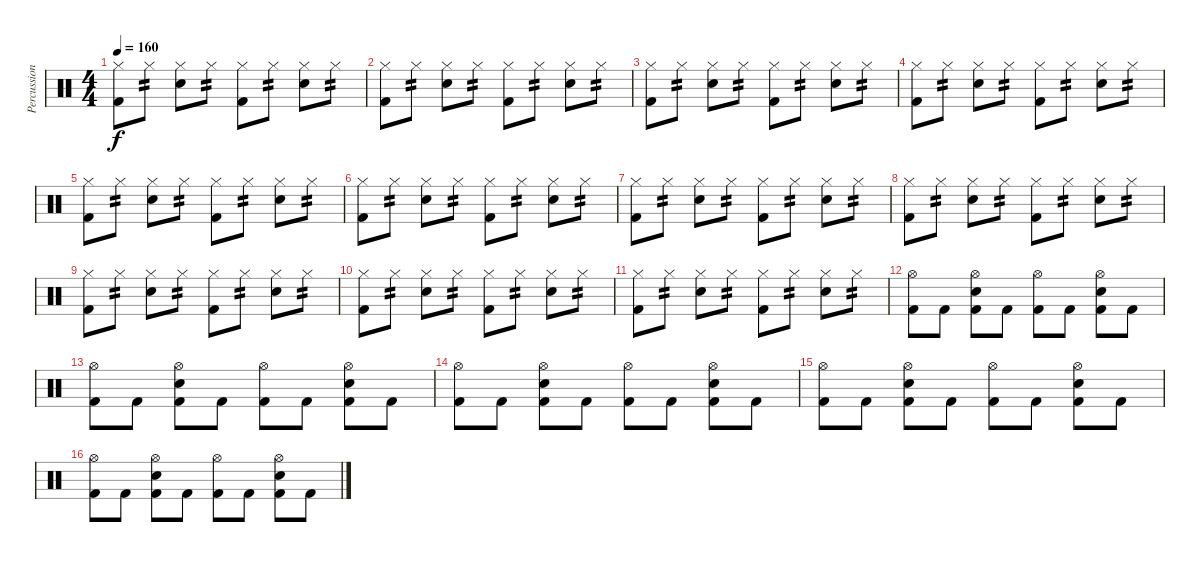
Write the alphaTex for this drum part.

\track ("Percussion" "Percussion") {instrument percussion}
\staff {score}
\articulation defaults
\ts (4 4)
\tempo 160
\clef neutral
\ks c
("Hi-Hat (closed)" "Kick (hit) 2").8{dy f} "Hi-Hat (closed)".8{tp 2} ("Hi-Hat (closed)" "Snare (hit) 2").8 "Hi-Hat (closed)".8{tp 2} ("Hi-Hat (closed)" "Kick (hit) 2").8 "Hi-Hat (closed)".8{tp 2} ("Hi-Hat (closed)" "Snare (hit) 2").8 "Hi-Hat (closed)".8{tp 2} |
("Hi-Hat (closed)" "Kick (hit) 2").8 "Hi-Hat (closed)".8{tp 2} ("Hi-Hat (closed)" "Snare (hit) 2").8 "Hi-Hat (closed)".8{tp 2} ("Hi-Hat (closed)" "Kick (hit) 2").8 "Hi-Hat (closed)".8{tp 2} ("Hi-Hat (closed)" "Snare (hit) 2").8 "Hi-Hat (closed)".8{tp 2} |
("Hi-Hat (closed)" "Kick (hit) 2").8 "Hi-Hat (closed)".8{tp 2} ("Hi-Hat (closed)" "Snare (hit) 2").8 "Hi-Hat (closed)".8{tp 2} ("Hi-Hat (closed)" "Kick (hit) 2").8 "Hi-Hat (closed)".8{tp 2} ("Hi-Hat (closed)" "Snare (hit) 2").8 "Hi-Hat (closed)".8{tp 2} |
("Hi-Hat (closed)" "Kick (hit) 2").8 "Hi-Hat (closed)".8{tp 2} ("Hi-Hat (closed)" "Snare (hit) 2").8 "Hi-Hat (closed)".8{tp 2} ("Hi-Hat (closed)" "Kick (hit) 2").8 "Hi-Hat (closed)".8{tp 2} ("Hi-Hat (closed)" "Snare (hit) 2").8 "Hi-Hat (closed)".8{tp 2} |
("Hi-Hat (closed)" "Kick (hit) 2").8 "Hi-Hat (closed)".8{tp 2} ("Hi-Hat (closed)" "Snare (hit) 2").8 "Hi-Hat (closed)".8{tp 2} ("Hi-Hat (closed)" "Kick (hit) 2").8 "Hi-Hat (closed)".8{tp 2} ("Hi-Hat (closed)" "Snare (hit) 2").8 "Hi-Hat (closed)".8{tp 2} |
("Hi-Hat (closed)" "Kick (hit) 2").8 "Hi-Hat (closed)".8{tp 2} ("Hi-Hat (closed)" "Snare (hit) 2").8 "Hi-Hat (closed)".8{tp 2} ("Hi-Hat (closed)" "Kick (hit) 2").8 "Hi-Hat (closed)".8{tp 2} ("Hi-Hat (closed)" "Snare (hit) 2").8 "Hi-Hat (closed)".8{tp 2} |
("Hi-Hat (closed)" "Kick (hit) 2").8 "Hi-Hat (closed)".8{tp 2} ("Hi-Hat (closed)" "Snare (hit) 2").8 "Hi-Hat (closed)".8{tp 2} ("Hi-Hat (closed)" "Kick (hit) 2").8 "Hi-Hat (closed)".8{tp 2} ("Hi-Hat (closed)" "Snare (hit) 2").8 "Hi-Hat (closed)".8{tp 2} |
("Hi-Hat (closed)" "Kick (hit) 2").8 "Hi-Hat (closed)".8{tp 2} ("Hi-Hat (closed)" "Snare (hit) 2").8 "Hi-Hat (closed)".8{tp 2} ("Hi-Hat (closed)" "Kick (hit) 2").8 "Hi-Hat (closed)".8{tp 2} ("Hi-Hat (closed)" "Snare (hit) 2").8 "Hi-Hat (closed)".8{tp 2} |
("Hi-Hat (closed)" "Kick (hit) 2").8 "Hi-Hat (closed)".8{tp 2} ("Hi-Hat (closed)" "Snare (hit) 2").8 "Hi-Hat (closed)".8{tp 2} ("Hi-Hat (closed)" "Kick (hit) 2").8 "Hi-Hat (closed)".8{tp 2} ("Hi-Hat (closed)" "Snare (hit) 2").8 "Hi-Hat (closed)".8{tp 2} |
("Hi-Hat (closed)" "Kick (hit) 2").8 "Hi-Hat (closed)".8{tp 2} ("Hi-Hat (closed)" "Snare (hit) 2").8 "Hi-Hat (closed)".8{tp 2} ("Hi-Hat (closed)" "Kick (hit) 2").8 "Hi-Hat (closed)".8{tp 2} ("Hi-Hat (closed)" "Snare (hit) 2").8 "Hi-Hat (closed)".8{tp 2} |
("Hi-Hat (closed)" "Kick (hit) 2").8 "Hi-Hat (closed)".8{tp 2} ("Hi-Hat (closed)" "Snare (hit) 2").8 "Hi-Hat (closed)".8{tp 2} ("Hi-Hat (closed)" "Kick (hit) 2").8 "Hi-Hat (closed)".8{tp 2} ("Hi-Hat (closed)" "Snare (hit) 2").8 "Hi-Hat (closed)".8{tp 2} |
("Hi-Hat (open)" "Kick (hit) 2").8 "Kick (hit) 2".8 ("Hi-Hat (open)" "Snare (hit) 2" "Kick (hit) 2").8 "Kick (hit) 2".8 ("Hi-Hat (open)" "Kick (hit) 2").8 "Kick (hit) 2".8 ("Hi-Hat (open)" "Snare (hit) 2" "Kick (hit) 2").8 "Kick (hit) 2".8 |
("Hi-Hat (open)" "Kick (hit) 2").8 "Kick (hit) 2".8 ("Hi-Hat (open)" "Snare (hit) 2" "Kick (hit) 2").8 "Kick (hit) 2".8 ("Hi-Hat (open)" "Kick (hit) 2").8 "Kick (hit) 2".8 ("Hi-Hat (open)" "Snare (hit) 2" "Kick (hit) 2").8 "Kick (hit) 2".8 |
("Hi-Hat (open)" "Kick (hit) 2").8 "Kick (hit) 2".8 ("Hi-Hat (open)" "Snare (hit) 2" "Kick (hit) 2").8 "Kick (hit) 2".8 ("Hi-Hat (open)" "Kick (hit) 2").8 "Kick (hit) 2".8 ("Hi-Hat (open)" "Snare (hit) 2" "Kick (hit) 2").8 "Kick (hit) 2".8 |
("Hi-Hat (open)" "Kick (hit) 2").8 "Kick (hit) 2".8 ("Hi-Hat (open)" "Snare (hit) 2" "Kick (hit) 2").8 "Kick (hit) 2".8 ("Hi-Hat (open)" "Kick (hit) 2").8 "Kick (hit) 2".8 ("Hi-Hat (open)" "Snare (hit) 2" "Kick (hit) 2").8 "Kick (hit) 2".8 |
("Hi-Hat (open)" "Kick (hit) 2").8 "Kick (hit) 2".8 ("Hi-Hat (open)" "Snare (hit) 2" "Kick (hit) 2").8 "Kick (hit) 2".8 ("Hi-Hat (open)" "Kick (hit) 2").8 "Kick (hit) 2".8 ("Hi-Hat (open)" "Snare (hit) 2" "Kick (hit) 2").8 "Kick (hit) 2".8
